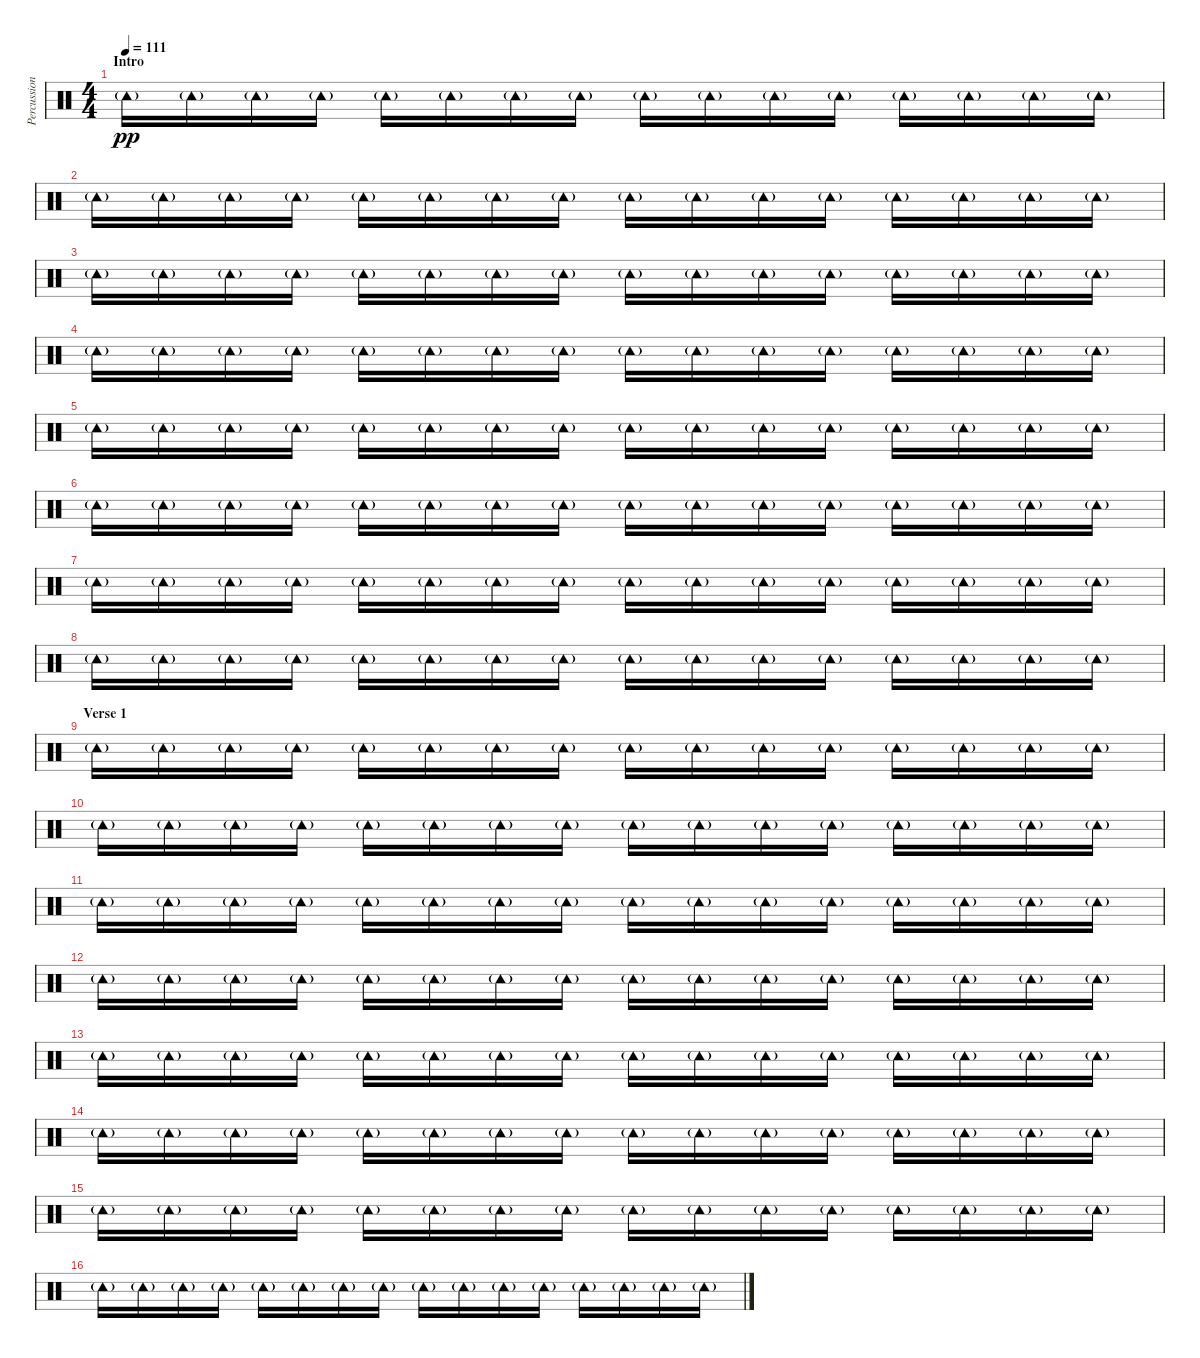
\track ("Percussion" "Percussion") {instrument percussion}
\staff {score}
\articulation defaults
\ts (4 4)
\section ("" "Intro")
\tempo 111
\clef neutral
\ks c "Tambourine (hit)"{g}.16{dy pp} "Tambourine (hit)"{g}.16 "Tambourine (hit)"{g}.16 "Tambourine (hit)"{g}.16 "Tambourine (hit)"{g}.16 "Tambourine (hit)"{g}.16 "Tambourine (hit)"{g}.16 "Tambourine (hit)"{g}.16 "Tambourine (hit)"{g}.16 "Tambourine (hit)"{g}.16 "Tambourine (hit)"{g}.16 "Tambourine (hit)"{g}.16 "Tambourine (hit)"{g}.16 "Tambourine (hit)"{g}.16 "Tambourine (hit)"{g}.16 "Tambourine (hit)"{g}.16
|
"Tambourine (hit)"{g}.16 "Tambourine (hit)"{g}.16 "Tambourine (hit)"{g}.16 "Tambourine (hit)"{g}.16 "Tambourine (hit)"{g}.16 "Tambourine (hit)"{g}.16 "Tambourine (hit)"{g}.16 "Tambourine (hit)"{g}.16 "Tambourine (hit)"{g}.16 "Tambourine (hit)"{g}.16 "Tambourine (hit)"{g}.16 "Tambourine (hit)"{g}.16 "Tambourine (hit)"{g}.16 "Tambourine (hit)"{g}.16 "Tambourine (hit)"{g}.16 "Tambourine (hit)"{g}.16 |
"Tambourine (hit)"{g}.16 "Tambourine (hit)"{g}.16 "Tambourine (hit)"{g}.16 "Tambourine (hit)"{g}.16 "Tambourine (hit)"{g}.16 "Tambourine (hit)"{g}.16 "Tambourine (hit)"{g}.16 "Tambourine (hit)"{g}.16 "Tambourine (hit)"{g}.16 "Tambourine (hit)"{g}.16 "Tambourine (hit)"{g}.16 "Tambourine (hit)"{g}.16 "Tambourine (hit)"{g}.16 "Tambourine (hit)"{g}.16 "Tambourine (hit)"{g}.16 "Tambourine (hit)"{g}.16 |
"Tambourine (hit)"{g}.16 "Tambourine (hit)"{g}.16 "Tambourine (hit)"{g}.16 "Tambourine (hit)"{g}.16 "Tambourine (hit)"{g}.16 "Tambourine (hit)"{g}.16 "Tambourine (hit)"{g}.16 "Tambourine (hit)"{g}.16 "Tambourine (hit)"{g}.16 "Tambourine (hit)"{g}.16 "Tambourine (hit)"{g}.16 "Tambourine (hit)"{g}.16 "Tambourine (hit)"{g}.16 "Tambourine (hit)"{g}.16 "Tambourine (hit)"{g}.16 "Tambourine (hit)"{g}.16 |
"Tambourine (hit)"{g}.16 "Tambourine (hit)"{g}.16 "Tambourine (hit)"{g}.16 "Tambourine (hit)"{g}.16 "Tambourine (hit)"{g}.16 "Tambourine (hit)"{g}.16 "Tambourine (hit)"{g}.16 "Tambourine (hit)"{g}.16 "Tambourine (hit)"{g}.16 "Tambourine (hit)"{g}.16 "Tambourine (hit)"{g}.16 "Tambourine (hit)"{g}.16 "Tambourine (hit)"{g}.16 "Tambourine (hit)"{g}.16 "Tambourine (hit)"{g}.16 "Tambourine (hit)"{g}.16 |
"Tambourine (hit)"{g}.16 "Tambourine (hit)"{g}.16 "Tambourine (hit)"{g}.16 "Tambourine (hit)"{g}.16 "Tambourine (hit)"{g}.16 "Tambourine (hit)"{g}.16 "Tambourine (hit)"{g}.16 "Tambourine (hit)"{g}.16 "Tambourine (hit)"{g}.16 "Tambourine (hit)"{g}.16 "Tambourine (hit)"{g}.16 "Tambourine (hit)"{g}.16 "Tambourine (hit)"{g}.16 "Tambourine (hit)"{g}.16 "Tambourine (hit)"{g}.16 "Tambourine (hit)"{g}.16 |
"Tambourine (hit)"{g}.16 "Tambourine (hit)"{g}.16 "Tambourine (hit)"{g}.16 "Tambourine (hit)"{g}.16 "Tambourine (hit)"{g}.16 "Tambourine (hit)"{g}.16 "Tambourine (hit)"{g}.16 "Tambourine (hit)"{g}.16 "Tambourine (hit)"{g}.16 "Tambourine (hit)"{g}.16 "Tambourine (hit)"{g}.16 "Tambourine (hit)"{g}.16 "Tambourine (hit)"{g}.16 "Tambourine (hit)"{g}.16 "Tambourine (hit)"{g}.16 "Tambourine (hit)"{g}.16 |
"Tambourine (hit)"{g}.16 "Tambourine (hit)"{g}.16 "Tambourine (hit)"{g}.16 "Tambourine (hit)"{g}.16 "Tambourine (hit)"{g}.16 "Tambourine (hit)"{g}.16 "Tambourine (hit)"{g}.16 "Tambourine (hit)"{g}.16 "Tambourine (hit)"{g}.16 "Tambourine (hit)"{g}.16 "Tambourine (hit)"{g}.16 "Tambourine (hit)"{g}.16 "Tambourine (hit)"{g}.16 "Tambourine (hit)"{g}.16 "Tambourine (hit)"{g}.16 "Tambourine (hit)"{g}.16 |
\section ("" "Verse 1")
"Tambourine (hit)"{g}.16 "Tambourine (hit)"{g}.16 "Tambourine (hit)"{g}.16 "Tambourine (hit)"{g}.16 "Tambourine (hit)"{g}.16 "Tambourine (hit)"{g}.16 "Tambourine (hit)"{g}.16 "Tambourine (hit)"{g}.16 "Tambourine (hit)"{g}.16 "Tambourine (hit)"{g}.16 "Tambourine (hit)"{g}.16 "Tambourine (hit)"{g}.16 "Tambourine (hit)"{g}.16 "Tambourine (hit)"{g}.16 "Tambourine (hit)"{g}.16 "Tambourine (hit)"{g}.16 |
"Tambourine (hit)"{g}.16 "Tambourine (hit)"{g}.16 "Tambourine (hit)"{g}.16 "Tambourine (hit)"{g}.16 "Tambourine (hit)"{g}.16 "Tambourine (hit)"{g}.16 "Tambourine (hit)"{g}.16 "Tambourine (hit)"{g}.16 "Tambourine (hit)"{g}.16 "Tambourine (hit)"{g}.16 "Tambourine (hit)"{g}.16 "Tambourine (hit)"{g}.16 "Tambourine (hit)"{g}.16 "Tambourine (hit)"{g}.16 "Tambourine (hit)"{g}.16 "Tambourine (hit)"{g}.16 |
"Tambourine (hit)"{g}.16 "Tambourine (hit)"{g}.16 "Tambourine (hit)"{g}.16 "Tambourine (hit)"{g}.16 "Tambourine (hit)"{g}.16 "Tambourine (hit)"{g}.16 "Tambourine (hit)"{g}.16 "Tambourine (hit)"{g}.16 "Tambourine (hit)"{g}.16 "Tambourine (hit)"{g}.16 "Tambourine (hit)"{g}.16 "Tambourine (hit)"{g}.16 "Tambourine (hit)"{g}.16 "Tambourine (hit)"{g}.16 "Tambourine (hit)"{g}.16 "Tambourine (hit)"{g}.16 |
"Tambourine (hit)"{g}.16 "Tambourine (hit)"{g}.16 "Tambourine (hit)"{g}.16 "Tambourine (hit)"{g}.16 "Tambourine (hit)"{g}.16 "Tambourine (hit)"{g}.16 "Tambourine (hit)"{g}.16 "Tambourine (hit)"{g}.16 "Tambourine (hit)"{g}.16 "Tambourine (hit)"{g}.16 "Tambourine (hit)"{g}.16 "Tambourine (hit)"{g}.16 "Tambourine (hit)"{g}.16 "Tambourine (hit)"{g}.16 "Tambourine (hit)"{g}.16 "Tambourine (hit)"{g}.16 |
"Tambourine (hit)"{g}.16 "Tambourine (hit)"{g}.16 "Tambourine (hit)"{g}.16 "Tambourine (hit)"{g}.16 "Tambourine (hit)"{g}.16 "Tambourine (hit)"{g}.16 "Tambourine (hit)"{g}.16 "Tambourine (hit)"{g}.16 "Tambourine (hit)"{g}.16 "Tambourine (hit)"{g}.16 "Tambourine (hit)"{g}.16 "Tambourine (hit)"{g}.16 "Tambourine (hit)"{g}.16 "Tambourine (hit)"{g}.16 "Tambourine (hit)"{g}.16 "Tambourine (hit)"{g}.16 |
"Tambourine (hit)"{g}.16 "Tambourine (hit)"{g}.16 "Tambourine (hit)"{g}.16 "Tambourine (hit)"{g}.16 "Tambourine (hit)"{g}.16 "Tambourine (hit)"{g}.16 "Tambourine (hit)"{g}.16 "Tambourine (hit)"{g}.16 "Tambourine (hit)"{g}.16 "Tambourine (hit)"{g}.16 "Tambourine (hit)"{g}.16 "Tambourine (hit)"{g}.16 "Tambourine (hit)"{g}.16 "Tambourine (hit)"{g}.16 "Tambourine (hit)"{g}.16 "Tambourine (hit)"{g}.16 |
"Tambourine (hit)"{g}.16 "Tambourine (hit)"{g}.16 "Tambourine (hit)"{g}.16 "Tambourine (hit)"{g}.16 "Tambourine (hit)"{g}.16 "Tambourine (hit)"{g}.16 "Tambourine (hit)"{g}.16 "Tambourine (hit)"{g}.16 "Tambourine (hit)"{g}.16 "Tambourine (hit)"{g}.16 "Tambourine (hit)"{g}.16 "Tambourine (hit)"{g}.16 "Tambourine (hit)"{g}.16 "Tambourine (hit)"{g}.16 "Tambourine (hit)"{g}.16 "Tambourine (hit)"{g}.16 |
"Tambourine (hit)"{g}.16 "Tambourine (hit)"{g}.16 "Tambourine (hit)"{g}.16 "Tambourine (hit)"{g}.16 "Tambourine (hit)"{g}.16 "Tambourine (hit)"{g}.16 "Tambourine (hit)"{g}.16 "Tambourine (hit)"{g}.16 "Tambourine (hit)"{g}.16 "Tambourine (hit)"{g}.16 "Tambourine (hit)"{g}.16 "Tambourine (hit)"{g}.16 "Tambourine (hit)"{g}.16 "Tambourine (hit)"{g}.16 "Tambourine (hit)"{g}.16 "Tambourine (hit)"{g}.16
